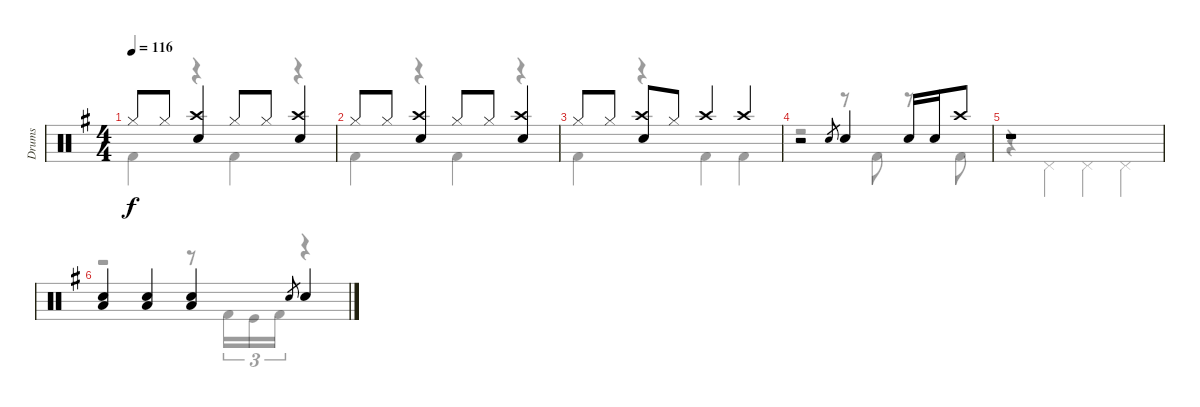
\track ("Drums" "Drums") {instrument percussion}
\staff {score}
\articulation defaults
\voice
\ts (4 4)
\tempo 116
\clef neutral
\ks g "Hi-Hat (closed)".8{dy f} "Hi-Hat (closed)".8
("Crash high (hit)" "Snare (hit) 2").4 "Hi-Hat (closed)".8 "Hi-Hat (closed)".8 ("Crash high (hit)" "Snare (hit) 2").4 |
"Hi-Hat (closed)".8 "Hi-Hat (closed)".8 ("Crash high (hit)" "Snare (hit) 2").4 "Hi-Hat (closed)".8 "Hi-Hat (closed)".8 ("Crash high (hit)" "Snare (hit) 2").4 |
"Hi-Hat (closed)".8 "Hi-Hat (closed)".8 ("Crash high (hit)" "Snare (hit) 2").8 "Hi-Hat (closed)".8 "Crash high (hit)".4 "Crash high (hit)".4 |
r.2 "Snare (hit) 2".8{gr} "Snare (hit) 2".4 "Snare (hit) 2".16 "Snare (hit) 2".16 "Crash high (hit)".8 |
r.1 |
("Low Floor Tom (hit)" "Snare (hit) 2").4 ("Low Floor Tom (hit)" "Snare (hit) 2").4 ("Low Floor Tom (hit)" "Snare (hit) 2").4 "Snare (hit) 2".8{gr} "Snare (hit) 2".4 |
\voice
\clef neutral
\ottava regular
\simile none
\ks g "Kick (hit) 2".4{dy f}
r.4 "Kick (hit) 2".4 r.4 |
"Kick (hit) 2".4 r.4 "Kick (hit) 2".4 r.4 |
"Kick (hit) 2".4 r.4 "Kick (hit) 2".4 "Kick (hit) 2".4 |
r.2 r.8 "Kick (hit) 2".8 r.8 "Kick (hit) 2".8 |
r.4 "Pedal Hi-Hat (hit)".4 "Pedal Hi-Hat (hit)".4 "Pedal Hi-Hat (hit)".4 |
r.2 r.8 "Kick (hit) 2".16{tu (3 2)} "Kick (hit)".16{tu (3 2)} "Kick (hit) 2".16{tu (3 2)} r.4 |
